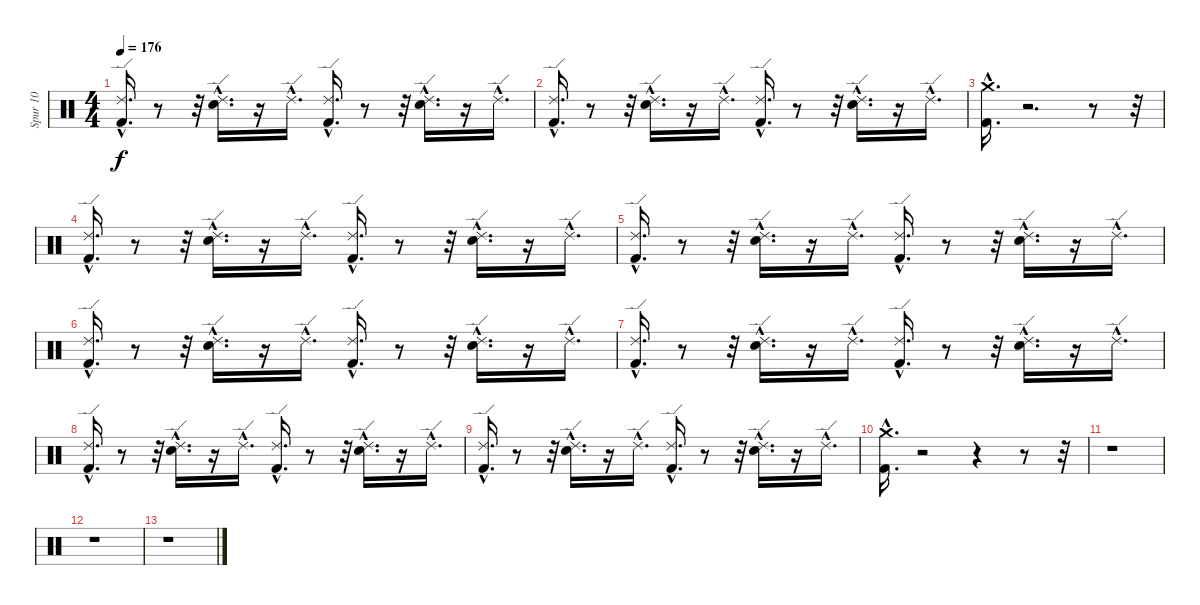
\track ("Spur 10" "Spur 10") {instrument percussion}
\staff {score}
\articulation defaults
\ts (4 4)
\tempo 176
\clef neutral
\ks c
("Ride (edge) 2"{hac} "Kick (hit) 2"{hac}).16{d dy f} r.8 r.32 ("Ride (edge) 2"{hac} "Snare (hit) 2"{hac}).16{d} r.16 "Ride (edge) 2"{hac}.16{d} ("Ride (edge) 2"{hac} "Kick (hit) 2"{hac}).16{d} r.8 r.32 ("Ride (edge) 2"{hac} "Snare (hit) 2"{hac}).16{d} r.16 "Ride (edge) 2"{hac}.16{d} |
("Ride (edge) 2"{hac} "Kick (hit) 2"{hac}).16{d} r.8 r.32 ("Ride (edge) 2"{hac} "Snare (hit) 2"{hac}).16{d} r.16 "Ride (edge) 2"{hac}.16{d} ("Ride (edge) 2"{hac} "Kick (hit) 2"{hac}).16{d} r.8 r.32 ("Ride (edge) 2"{hac} "Snare (hit) 2"{hac}).16{d} r.16 "Ride (edge) 2"{hac}.16{d} |
("Crash medium (hit)"{hac} "Kick (hit) 2"{hac}).16{d} r.2{d} r.8 r.32 |
("Kick (hit) 2"{hac} "Ride (edge) 2"{hac}).16{d} r.8 r.32 ("Snare (hit) 2"{hac} "Ride (edge) 2"{hac}).16{d} r.16 "Ride (edge) 2"{hac}.16{d} ("Kick (hit) 2"{hac} "Ride (edge) 2"{hac}).16{d} r.8 r.32 ("Snare (hit) 2"{hac} "Ride (edge) 2"{hac}).16{d} r.16 "Ride (edge) 2"{hac}.16{d} |
("Kick (hit) 2"{hac} "Ride (edge) 2"{hac}).16{d} r.8 r.32 ("Snare (hit) 2"{hac} "Ride (edge) 2"{hac}).16{d} r.16 "Ride (edge) 2"{hac}.16{d} ("Kick (hit) 2"{hac} "Ride (edge) 2"{hac}).16{d} r.8 r.32 ("Snare (hit) 2"{hac} "Ride (edge) 2"{hac}).16{d} r.16 "Ride (edge) 2"{hac}.16{d} |
("Kick (hit) 2"{hac} "Ride (edge) 2"{hac}).16{d} r.8 r.32 ("Snare (hit) 2"{hac} "Ride (edge) 2"{hac}).16{d} r.16 "Ride (edge) 2"{hac}.16{d} ("Kick (hit) 2"{hac} "Ride (edge) 2"{hac}).16{d} r.8 r.32 ("Snare (hit) 2"{hac} "Ride (edge) 2"{hac}).16{d} r.16 "Ride (edge) 2"{hac}.16{d} |
("Kick (hit) 2"{hac} "Ride (edge) 2"{hac}).16{d} r.8 r.32 ("Snare (hit) 2"{hac} "Ride (edge) 2"{hac}).16{d} r.16 "Ride (edge) 2"{hac}.16{d} ("Kick (hit) 2"{hac} "Ride (edge) 2"{hac}).16{d} r.8 r.32 ("Snare (hit) 2"{hac} "Ride (edge) 2"{hac}).16{d} r.16 "Ride (edge) 2"{hac}.16{d} |
("Kick (hit) 2"{hac} "Ride (edge) 2"{hac}).16{d} r.8 r.32 ("Snare (hit) 2"{hac} "Ride (edge) 2"{hac}).16{d} r.16 "Ride (edge) 2"{hac}.16{d} ("Kick (hit) 2"{hac} "Ride (edge) 2"{hac}).16{d} r.8 r.32 ("Snare (hit) 2"{hac} "Ride (edge) 2"{hac}).16{d} r.16 "Ride (edge) 2"{hac}.16{d} |
("Kick (hit) 2"{hac} "Ride (edge) 2"{hac}).16{d} r.8 r.32 ("Snare (hit) 2"{hac} "Ride (edge) 2"{hac}).16{d} r.16 "Ride (edge) 2"{hac}.16{d} ("Kick (hit) 2"{hac} "Ride (edge) 2"{hac}).16{d} r.8 r.32 ("Snare (hit) 2"{hac} "Ride (edge) 2"{hac}).16{d} r.16 "Ride (edge) 2"{hac}.16{d} |
("Kick (hit) 2"{hac} "Crash medium (hit)"{hac}).16{d} r.2 r.4 r.8 r.32 |
r.1 |
r.1 |
r.1
